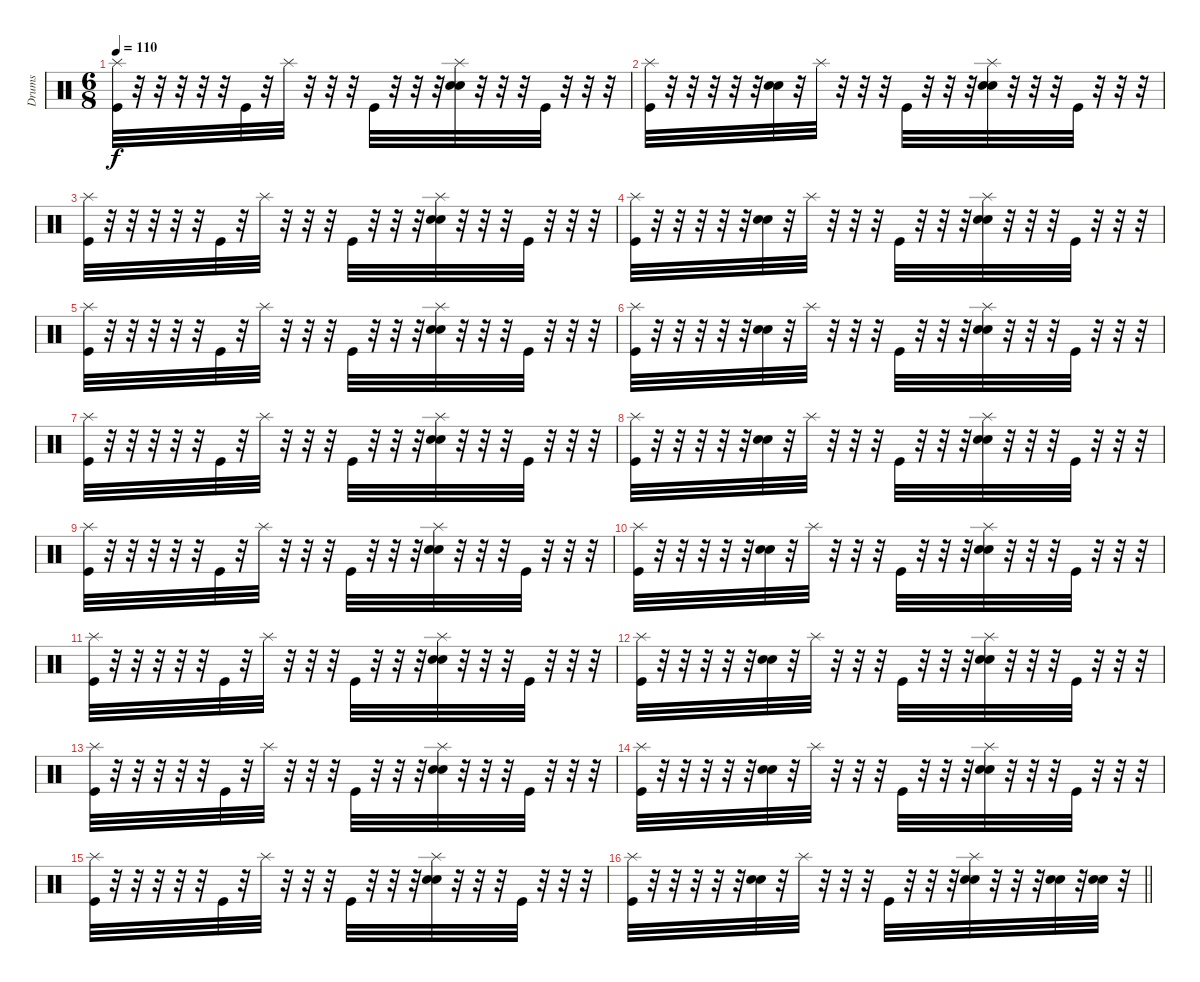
\track ("Drums" "Drums") {instrument percussion}
\staff {score}
\articulation defaults
\ts (6 8)
\tempo 110
\clef neutral
\ks c
("Splash (hit)" "Kick (hit)").32{dy f} r.32 r.32 r.32 r.32 r.32 "Kick (hit)".32 r.32 "Splash (hit)".32 r.32 r.32 r.32 "Kick (hit)".32 r.32 r.32 r.32 ("Splash (hit)" "Electric Snare (hit)" "Electric Snare (hit)").32 r.32 r.32 r.32 "Kick (hit)".32 r.32 r.32 r.32 |
("Splash (hit)" "Kick (hit)").32 r.32 r.32 r.32 r.32 r.32 ("Electric Snare (hit)" "Electric Snare (hit)").32 r.32 "Splash (hit)".32 r.32 r.32 r.32 "Kick (hit)".32 r.32 r.32 r.32 ("Splash (hit)" "Electric Snare (hit)" "Electric Snare (hit)").32 r.32 r.32 r.32 "Kick (hit)".32 r.32 r.32 r.32 |
("Splash (hit)" "Kick (hit)").32 r.32 r.32 r.32 r.32 r.32 "Kick (hit)".32 r.32 "Splash (hit)".32 r.32 r.32 r.32 "Kick (hit)".32 r.32 r.32 r.32 ("Splash (hit)" "Electric Snare (hit)" "Electric Snare (hit)").32 r.32 r.32 r.32 "Kick (hit)".32 r.32 r.32 r.32 |
("Splash (hit)" "Kick (hit)").32 r.32 r.32 r.32 r.32 r.32 ("Electric Snare (hit)" "Electric Snare (hit)").32 r.32 "Splash (hit)".32 r.32 r.32 r.32 "Kick (hit)".32 r.32 r.32 r.32 ("Splash (hit)" "Electric Snare (hit)" "Electric Snare (hit)").32 r.32 r.32 r.32 "Kick (hit)".32 r.32 r.32 r.32 |
("Splash (hit)" "Kick (hit)").32 r.32 r.32 r.32 r.32 r.32 "Kick (hit)".32 r.32 "Splash (hit)".32 r.32 r.32 r.32 "Kick (hit)".32 r.32 r.32 r.32 ("Splash (hit)" "Electric Snare (hit)" "Electric Snare (hit)").32 r.32 r.32 r.32 "Kick (hit)".32 r.32 r.32 r.32 |
("Splash (hit)" "Kick (hit)").32 r.32 r.32 r.32 r.32 r.32 ("Electric Snare (hit)" "Electric Snare (hit)").32 r.32 "Splash (hit)".32 r.32 r.32 r.32 "Kick (hit)".32 r.32 r.32 r.32 ("Splash (hit)" "Electric Snare (hit)" "Electric Snare (hit)").32 r.32 r.32 r.32 "Kick (hit)".32 r.32 r.32 r.32 |
("Splash (hit)" "Kick (hit)").32 r.32 r.32 r.32 r.32 r.32 "Kick (hit)".32 r.32 "Splash (hit)".32 r.32 r.32 r.32 "Kick (hit)".32 r.32 r.32 r.32 ("Splash (hit)" "Electric Snare (hit)" "Electric Snare (hit)").32 r.32 r.32 r.32 "Kick (hit)".32 r.32 r.32 r.32 |
("Splash (hit)" "Kick (hit)").32 r.32 r.32 r.32 r.32 r.32 ("Electric Snare (hit)" "Electric Snare (hit)").32 r.32 "Splash (hit)".32 r.32 r.32 r.32 "Kick (hit)".32 r.32 r.32 r.32 ("Splash (hit)" "Electric Snare (hit)" "Electric Snare (hit)").32 r.32 r.32 r.32 "Kick (hit)".32 r.32 r.32 r.32 |
("Splash (hit)" "Kick (hit)").32 r.32 r.32 r.32 r.32 r.32 "Kick (hit)".32 r.32 "Splash (hit)".32 r.32 r.32 r.32 "Kick (hit)".32 r.32 r.32 r.32 ("Splash (hit)" "Electric Snare (hit)" "Electric Snare (hit)").32 r.32 r.32 r.32 "Kick (hit)".32 r.32 r.32 r.32 |
("Splash (hit)" "Kick (hit)").32 r.32 r.32 r.32 r.32 r.32 ("Electric Snare (hit)" "Electric Snare (hit)").32 r.32 "Splash (hit)".32 r.32 r.32 r.32 "Kick (hit)".32 r.32 r.32 r.32 ("Splash (hit)" "Electric Snare (hit)" "Electric Snare (hit)").32 r.32 r.32 r.32 "Kick (hit)".32 r.32 r.32 r.32 |
("Splash (hit)" "Kick (hit)").32 r.32 r.32 r.32 r.32 r.32 "Kick (hit)".32 r.32 "Splash (hit)".32 r.32 r.32 r.32 "Kick (hit)".32 r.32 r.32 r.32 ("Splash (hit)" "Electric Snare (hit)" "Electric Snare (hit)").32 r.32 r.32 r.32 "Kick (hit)".32 r.32 r.32 r.32 |
("Splash (hit)" "Kick (hit)").32 r.32 r.32 r.32 r.32 r.32 ("Electric Snare (hit)" "Electric Snare (hit)").32 r.32 "Splash (hit)".32 r.32 r.32 r.32 "Kick (hit)".32 r.32 r.32 r.32 ("Splash (hit)" "Electric Snare (hit)" "Electric Snare (hit)").32 r.32 r.32 r.32 "Kick (hit)".32 r.32 r.32 r.32 |
("Splash (hit)" "Kick (hit)").32 r.32 r.32 r.32 r.32 r.32 "Kick (hit)".32 r.32 "Splash (hit)".32 r.32 r.32 r.32 "Kick (hit)".32 r.32 r.32 r.32 ("Splash (hit)" "Electric Snare (hit)" "Electric Snare (hit)").32 r.32 r.32 r.32 "Kick (hit)".32 r.32 r.32 r.32 |
("Splash (hit)" "Kick (hit)").32 r.32 r.32 r.32 r.32 r.32 ("Electric Snare (hit)" "Electric Snare (hit)").32 r.32 "Splash (hit)".32 r.32 r.32 r.32 "Kick (hit)".32 r.32 r.32 r.32 ("Splash (hit)" "Electric Snare (hit)" "Electric Snare (hit)").32 r.32 r.32 r.32 "Kick (hit)".32 r.32 r.32 r.32 |
("Splash (hit)" "Kick (hit)").32 r.32 r.32 r.32 r.32 r.32 "Kick (hit)".32 r.32 "Splash (hit)".32 r.32 r.32 r.32 "Kick (hit)".32 r.32 r.32 r.32 ("Splash (hit)" "Electric Snare (hit)" "Electric Snare (hit)").32 r.32 r.32 r.32 "Kick (hit)".32 r.32 r.32 r.32 |
\barLineRight lightlight
("Splash (hit)" "Kick (hit)").32 r.32 r.32 r.32 r.32 r.32 ("Electric Snare (hit)" "Electric Snare (hit)").32 r.32 "Splash (hit)".32 r.32 r.32 r.32 "Kick (hit)".32 r.32 r.32 r.32 ("Splash (hit)" "Electric Snare (hit)" "Electric Snare (hit)").32 r.32 r.32 r.32 ("Electric Snare (hit)" "Electric Snare (hit)").32 r.32 ("Electric Snare (hit)" "Electric Snare (hit)").32 r.32
